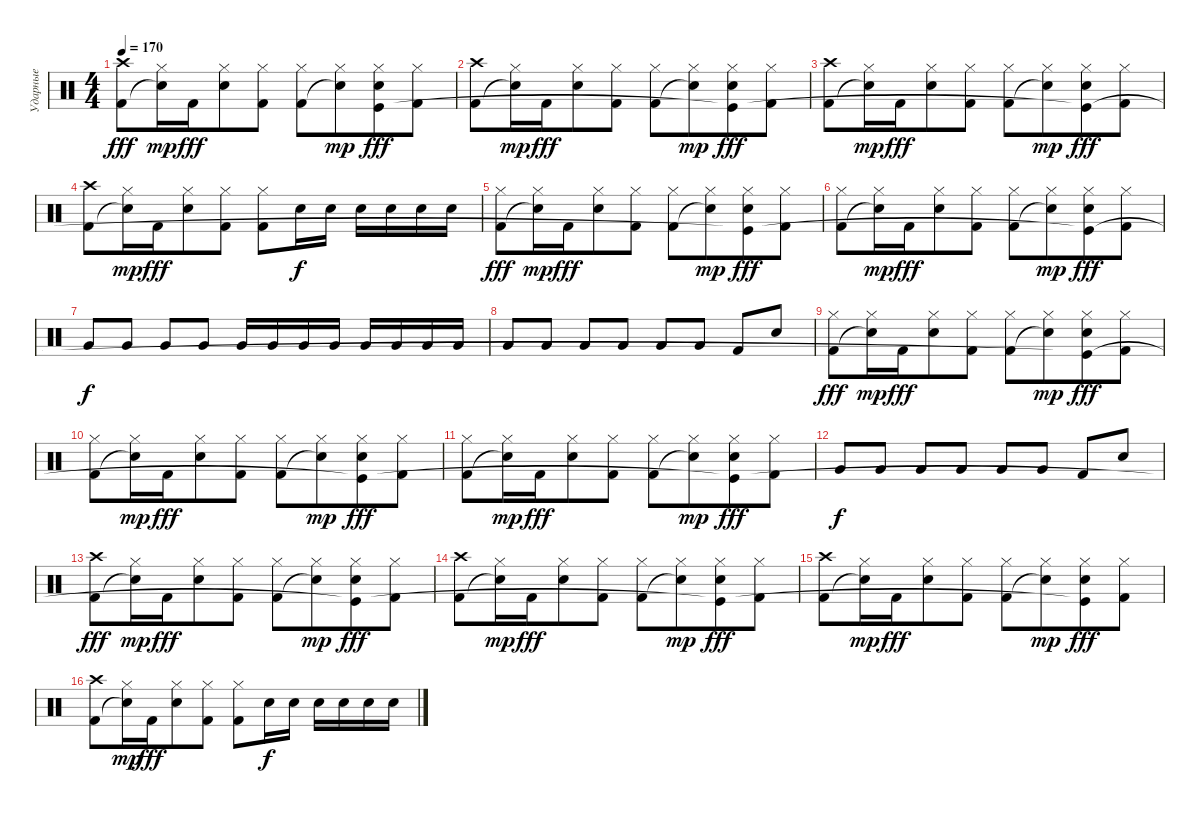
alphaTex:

\track ("Ударные" "Ударные") {instrument percussion}
\staff {score}
\articulation defaults
\ts (4 4)
\tempo 170
\clef neutral
\ks c
("Crash high (hit)" "Kick (hit) 2").8{dy fff} ("Hi-Hat (closed)" "Snare (hit)"{t}).16{dy mp} "Kick (hit) 2".16{dy fff beam merge} ("Hi-Hat (closed)" "Electric Snare (hit)").8 ("Hi-Hat (closed)" "Kick (hit) 2").8 ("Hi-Hat (closed)" "Kick (hit) 2").8 ("Hi-Hat (closed)" "Snare (hit)"{t}).8{dy mp beam merge} ("Hi-Hat (closed)" "Electric Snare (hit)" "Kick (hit)"{t}).8{dy fff} ("Hi-Hat (closed)" "Kick (hit) 2").8 |
("Crash high (hit)" "Kick (hit) 2").8 ("Hi-Hat (closed)" "Snare (hit)"{t}).16{dy mp} "Kick (hit) 2".16{dy fff beam merge} ("Hi-Hat (closed)" "Electric Snare (hit)").8 ("Hi-Hat (closed)" "Kick (hit) 2").8 ("Hi-Hat (closed)" "Kick (hit) 2").8 ("Hi-Hat (closed)" "Snare (hit)"{t}).8{dy mp beam merge} ("Hi-Hat (closed)" "Electric Snare (hit)" "Kick (hit)"{t}).8{dy fff} ("Hi-Hat (closed)" "Kick (hit) 2").8 |
("Crash high (hit)" "Kick (hit) 2").8 ("Hi-Hat (closed)" "Snare (hit)"{t}).16{dy mp} "Kick (hit) 2".16{dy fff beam merge} ("Hi-Hat (closed)" "Electric Snare (hit)").8 ("Hi-Hat (closed)" "Kick (hit) 2").8 ("Hi-Hat (closed)" "Kick (hit) 2").8 ("Hi-Hat (closed)" "Snare (hit)"{t}).8{dy mp beam merge} ("Hi-Hat (closed)" "Electric Snare (hit)" "Kick (hit)"{t}).8{dy fff} ("Hi-Hat (closed)" "Kick (hit) 2").8 |
("Crash high (hit)" "Kick (hit) 2").8 ("Hi-Hat (closed)" "Snare (hit)"{t}).16{dy mp} "Kick (hit) 2".16{dy fff beam merge} ("Hi-Hat (closed)" "Electric Snare (hit)").8 ("Hi-Hat (closed)" "Kick (hit) 2").8 ("Hi-Hat (closed)" "Kick (hit) 2").8 "Electric Snare (hit)".16{dy f} "Electric Snare (hit)".16 "Electric Snare (hit)".16 "Electric Snare (hit)".16 "Electric Snare (hit)".16 "Electric Snare (hit)".16 |
("Hi-Hat (closed)" "Kick (hit) 2").8{dy fff} ("Hi-Hat (closed)" "Snare (hit)"{t}).16{dy mp} "Kick (hit) 2".16{dy fff beam merge} ("Hi-Hat (closed)" "Electric Snare (hit)").8 ("Hi-Hat (closed)" "Kick (hit) 2").8 ("Hi-Hat (closed)" "Kick (hit) 2").8 ("Hi-Hat (closed)" "Snare (hit)"{t}).8{dy mp beam merge} ("Hi-Hat (closed)" "Electric Snare (hit)" "Kick (hit)"{t}).8{dy fff} ("Hi-Hat (closed)" "Kick (hit) 2").8 |
("Hi-Hat (closed)" "Kick (hit) 2").8 ("Hi-Hat (closed)" "Snare (hit)"{t}).16{dy mp} "Kick (hit) 2".16{dy fff beam merge} ("Hi-Hat (closed)" "Electric Snare (hit)").8 ("Hi-Hat (closed)" "Kick (hit) 2").8 ("Hi-Hat (closed)" "Kick (hit) 2").8 ("Hi-Hat (closed)" "Snare (hit)"{t}).8{dy mp beam merge} ("Hi-Hat (closed)" "Electric Snare (hit)" "Kick (hit)"{t}).8{dy fff} ("Hi-Hat (closed)" "Kick (hit) 2").8 |
"Very Low Tom (hit)".8{dy f} "Very Low Tom (hit)".8 "Very Low Tom (hit)".8 "Very Low Tom (hit)".8 "Very Low Tom (hit)".16 "Very Low Tom (hit)".16 "Very Low Tom (hit)".16 "Very Low Tom (hit)".16 "Very Low Tom (hit)".16 "Very Low Tom (hit)".16 "Very Low Tom (hit)".16 "Very Low Tom (hit)".16 |
"Very Low Tom (hit)".8 "Very Low Tom (hit)".8 "Very Low Tom (hit)".8 "Very Low Tom (hit)".8 "Very Low Tom (hit)".8 "Very Low Tom (hit)".8 "Kick (hit) 2".8 "Electric Snare (hit)".8 |
("Hi-Hat (closed)" "Kick (hit) 2").8{dy fff} ("Hi-Hat (closed)" "Snare (hit)"{t}).16{dy mp} "Kick (hit) 2".16{dy fff beam merge} ("Hi-Hat (closed)" "Electric Snare (hit)").8 ("Hi-Hat (closed)" "Kick (hit) 2").8 ("Hi-Hat (closed)" "Kick (hit) 2").8 ("Hi-Hat (closed)" "Snare (hit)"{t}).8{dy mp beam merge} ("Hi-Hat (closed)" "Electric Snare (hit)" "Kick (hit)"{t}).8{dy fff} ("Hi-Hat (closed)" "Kick (hit) 2").8 |
("Hi-Hat (closed)" "Kick (hit) 2").8 ("Hi-Hat (closed)" "Snare (hit)"{t}).16{dy mp} "Kick (hit) 2".16{dy fff beam merge} ("Hi-Hat (closed)" "Electric Snare (hit)").8 ("Hi-Hat (closed)" "Kick (hit) 2").8 ("Hi-Hat (closed)" "Kick (hit) 2").8 ("Hi-Hat (closed)" "Snare (hit)"{t}).8{dy mp beam merge} ("Hi-Hat (closed)" "Electric Snare (hit)" "Kick (hit)"{t}).8{dy fff} ("Hi-Hat (closed)" "Kick (hit) 2").8 |
("Hi-Hat (closed)" "Kick (hit) 2").8 ("Hi-Hat (closed)" "Snare (hit)"{t}).16{dy mp} "Kick (hit) 2".16{dy fff beam merge} ("Hi-Hat (closed)" "Electric Snare (hit)").8 ("Hi-Hat (closed)" "Kick (hit) 2").8 ("Hi-Hat (closed)" "Kick (hit) 2").8 ("Hi-Hat (closed)" "Snare (hit)"{t}).8{dy mp beam merge} ("Hi-Hat (closed)" "Electric Snare (hit)" "Kick (hit)"{t}).8{dy fff} ("Hi-Hat (closed)" "Kick (hit) 2").8 |
"Very Low Tom (hit)".8{dy f} "Very Low Tom (hit)".8 "Very Low Tom (hit)".8 "Very Low Tom (hit)".8 "Very Low Tom (hit)".8 "Very Low Tom (hit)".8 "Kick (hit) 2".8 "Electric Snare (hit)".8 |
("Crash high (hit)" "Kick (hit) 2").8{dy fff} ("Hi-Hat (closed)" "Snare (hit)"{t}).16{dy mp} "Kick (hit) 2".16{dy fff beam merge} ("Hi-Hat (closed)" "Electric Snare (hit)").8 ("Hi-Hat (closed)" "Kick (hit) 2").8 ("Hi-Hat (closed)" "Kick (hit) 2").8 ("Hi-Hat (closed)" "Snare (hit)"{t}).8{dy mp beam merge} ("Hi-Hat (closed)" "Electric Snare (hit)" "Kick (hit)"{t}).8{dy fff} ("Hi-Hat (closed)" "Kick (hit) 2").8 |
("Crash high (hit)" "Kick (hit) 2").8 ("Hi-Hat (closed)" "Snare (hit)"{t}).16{dy mp} "Kick (hit) 2".16{dy fff beam merge} ("Hi-Hat (closed)" "Electric Snare (hit)").8 ("Hi-Hat (closed)" "Kick (hit) 2").8 ("Hi-Hat (closed)" "Kick (hit) 2").8 ("Hi-Hat (closed)" "Snare (hit)"{t}).8{dy mp beam merge} ("Hi-Hat (closed)" "Electric Snare (hit)" "Kick (hit)"{t}).8{dy fff} ("Hi-Hat (closed)" "Kick (hit) 2").8 |
("Crash high (hit)" "Kick (hit) 2").8 ("Hi-Hat (closed)" "Snare (hit)"{t}).16{dy mp} "Kick (hit) 2".16{dy fff beam merge} ("Hi-Hat (closed)" "Electric Snare (hit)").8 ("Hi-Hat (closed)" "Kick (hit) 2").8 ("Hi-Hat (closed)" "Kick (hit) 2").8 ("Hi-Hat (closed)" "Snare (hit)"{t}).8{dy mp beam merge} ("Hi-Hat (closed)" "Electric Snare (hit)" "Kick (hit)"{t}).8{dy fff} ("Hi-Hat (closed)" "Kick (hit) 2").8 |
("Crash high (hit)" "Kick (hit) 2").8 ("Hi-Hat (closed)" "Snare (hit)"{t}).16{dy mp} "Kick (hit) 2".16{dy fff beam merge} ("Hi-Hat (closed)" "Electric Snare (hit)").8 ("Hi-Hat (closed)" "Kick (hit) 2").8 ("Hi-Hat (closed)" "Kick (hit) 2").8 "Electric Snare (hit)".16{dy f} "Electric Snare (hit)".16 "Electric Snare (hit)".16 "Electric Snare (hit)".16 "Electric Snare (hit)".16 "Electric Snare (hit)".16
